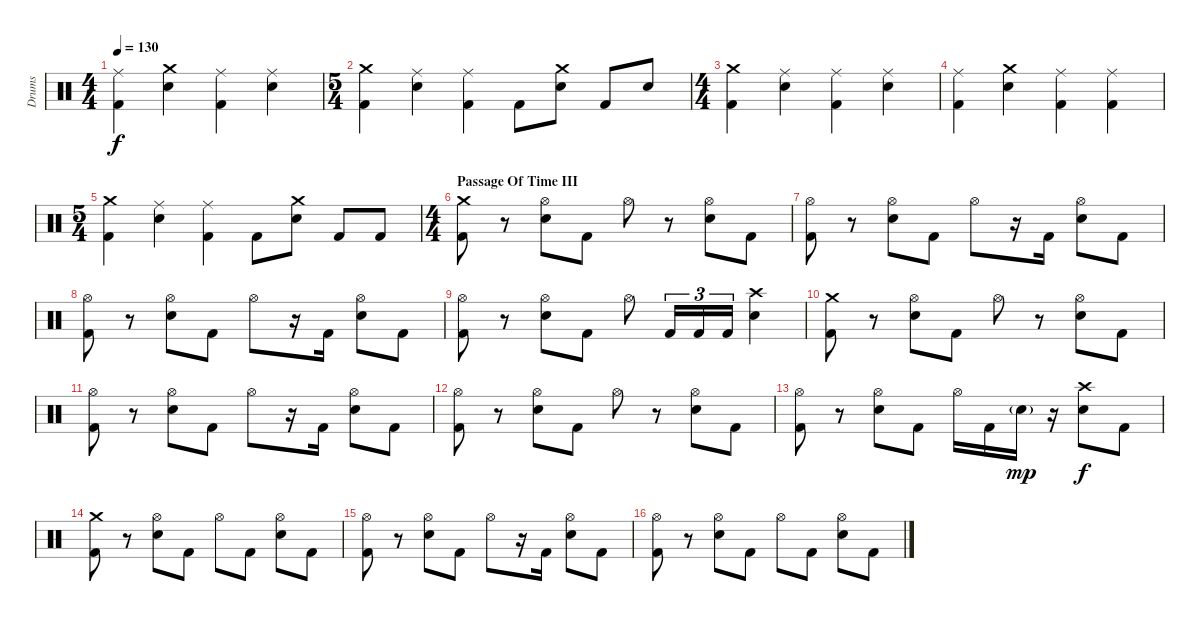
\track ("Drums" "Drums") {instrument percussion}
\staff {score}
\articulation defaults
\ts (4 4)
\tempo 130
\clef neutral
\ks c
("Ride (middle)" "Kick (hit) 2").4{dy f} ("Crash medium (hit)" "Electric Snare (hit)").4 ("Ride (middle)" "Kick (hit) 2").4 ("Ride (middle)" "Electric Snare (hit)").4 |
\ts (5 4)
("Crash medium (hit)" "Kick (hit) 2").4 ("Ride (middle)" "Electric Snare (hit)").4 ("Ride (middle)" "Kick (hit) 2").4 "Kick (hit) 2".8 ("Crash medium (hit)" "Electric Snare (hit)").8 "Kick (hit) 2".8 "Electric Snare (hit)".8 |
\ts (4 4)
("Crash medium (hit)" "Kick (hit) 2").4 ("Ride (middle)" "Electric Snare (hit)").4 ("Ride (middle)" "Kick (hit) 2").4 ("Ride (middle)" "Electric Snare (hit)").4 |
("Ride (middle)" "Kick (hit) 2").4 ("Crash medium (hit)" "Electric Snare (hit)").4 ("Ride (middle)" "Kick (hit) 2").4 ("Ride (middle)" "Kick (hit) 2").4 |
\ts (5 4)
("Crash medium (hit)" "Kick (hit) 2").4 ("Ride (middle)" "Electric Snare (hit)").4 ("Ride (middle)" "Kick (hit) 2").4 "Kick (hit) 2".8 ("Crash medium (hit)" "Electric Snare (hit)").8 "Kick (hit) 2".8 "Kick (hit) 2".8 |
\ts (4 4)
\section ("" "Passage Of Time III")
("Crash medium (hit)" "Kick (hit) 2").8 r.8 ("Hi-Hat (open)" "Electric Snare (hit)").8 "Kick (hit) 2".8 "Hi-Hat (open)".8 r.8 ("Hi-Hat (open)" "Electric Snare (hit)").8 "Kick (hit) 2".8 |
("Hi-Hat (open)" "Kick (hit) 2").8 r.8 ("Hi-Hat (open)" "Electric Snare (hit)").8 "Kick (hit) 2".8 "Hi-Hat (open)".8 r.16 "Kick (hit) 2".16 ("Hi-Hat (open)" "Electric Snare (hit)").8 "Kick (hit) 2".8 |
("Hi-Hat (open)" "Kick (hit) 2").8 r.8 ("Hi-Hat (open)" "Electric Snare (hit)").8 "Kick (hit) 2".8 "Hi-Hat (open)".8 r.16 "Kick (hit) 2".16 ("Hi-Hat (open)" "Electric Snare (hit)").8 "Kick (hit) 2".8 |
("Hi-Hat (open)" "Kick (hit) 2").8 r.8 ("Hi-Hat (open)" "Electric Snare (hit)").8 "Kick (hit) 2".8 "Hi-Hat (open)".8 "Kick (hit) 2".16{tu (3 2)} "Kick (hit) 2".16{tu (3 2)} "Kick (hit) 2".16{tu (3 2)} ("Crash high (hit)" "Electric Snare (hit)").4 |
("Crash medium (hit)" "Kick (hit) 2").8 r.8 ("Hi-Hat (open)" "Electric Snare (hit)").8 "Kick (hit) 2".8 "Hi-Hat (open)".8 r.8 ("Hi-Hat (open)" "Electric Snare (hit)").8 "Kick (hit) 2".8 |
("Hi-Hat (open)" "Kick (hit) 2").8 r.8 ("Hi-Hat (open)" "Electric Snare (hit)").8 "Kick (hit) 2".8 "Hi-Hat (open)".8 r.16 "Kick (hit) 2".16 ("Hi-Hat (open)" "Electric Snare (hit)").8 "Kick (hit) 2".8 |
("Hi-Hat (open)" "Kick (hit) 2").8 r.8 ("Hi-Hat (open)" "Electric Snare (hit)").8 "Kick (hit) 2".8 "Hi-Hat (open)".8 r.8 ("Hi-Hat (open)" "Electric Snare (hit)").8 "Kick (hit) 2".8 |
("Hi-Hat (open)" "Kick (hit) 2").8 r.8 ("Hi-Hat (open)" "Electric Snare (hit)").8 "Kick (hit) 2".8 "Hi-Hat (open)".16 "Kick (hit) 2".16 "Electric Snare (hit)"{g}.16{dy mp} r.16 ("Crash high (hit)" "Electric Snare (hit)").8{dy f} "Kick (hit) 2".8 |
\section ("" "")
("Crash medium (hit)" "Kick (hit) 2").8 r.8 ("Hi-Hat (open)" "Electric Snare (hit)").8 "Kick (hit) 2".8 "Hi-Hat (open)".8 "Kick (hit) 2".8 ("Hi-Hat (open)" "Electric Snare (hit)").8 "Kick (hit) 2".8 |
("Hi-Hat (open)" "Kick (hit) 2").8 r.8 ("Hi-Hat (open)" "Electric Snare (hit)").8 "Kick (hit) 2".8 "Hi-Hat (open)".8 r.16 "Kick (hit) 2".16 ("Hi-Hat (open)" "Electric Snare (hit)").8 "Kick (hit) 2".8 |
("Hi-Hat (open)" "Kick (hit) 2").8 r.8 ("Hi-Hat (open)" "Electric Snare (hit)").8 "Kick (hit) 2".8 "Hi-Hat (open)".8 "Kick (hit) 2".8 ("Hi-Hat (open)" "Electric Snare (hit)").8 "Kick (hit) 2".8
